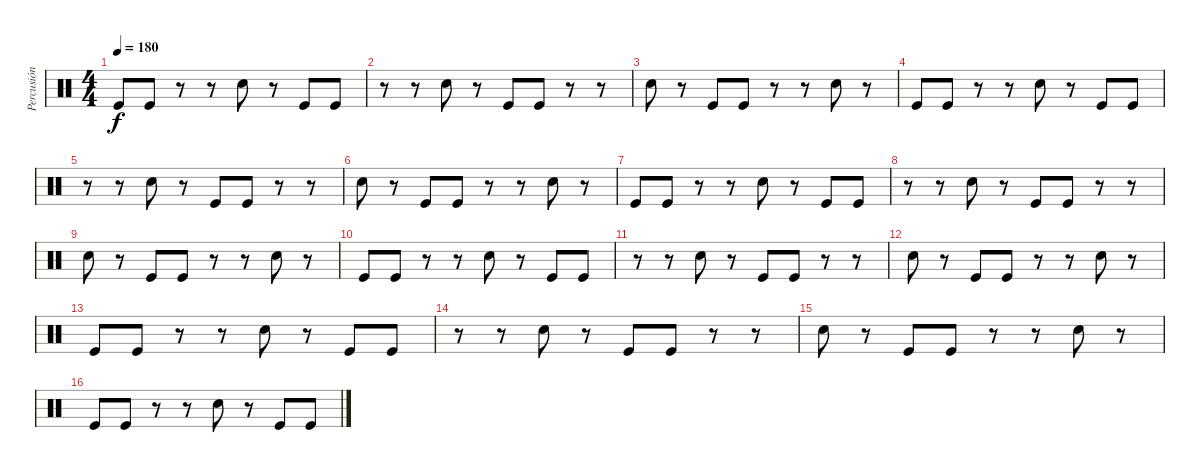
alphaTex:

\track ("Percusión" "Percusión") {instrument percussion}
\staff {score}
\articulation defaults
\ts (4 4)
\tempo 180
\clef neutral
\ks c "Kick (hit)".8{dy f} "Kick (hit)".8
r.8 r.8 "Snare (hit) 2".8 r.8 "Kick (hit)".8 "Kick (hit)".8 |
r.8 r.8 "Snare (hit) 2".8 r.8 "Kick (hit)".8 "Kick (hit)".8 r.8 r.8 |
"Snare (hit) 2".8 r.8 "Kick (hit)".8 "Kick (hit)".8 r.8 r.8 "Snare (hit) 2".8 r.8 |
"Kick (hit)".8 "Kick (hit)".8 r.8 r.8 "Snare (hit) 2".8 r.8 "Kick (hit)".8 "Kick (hit)".8 |
r.8 r.8 "Snare (hit) 2".8 r.8 "Kick (hit)".8 "Kick (hit)".8 r.8 r.8 |
"Snare (hit) 2".8 r.8 "Kick (hit)".8 "Kick (hit)".8 r.8 r.8 "Snare (hit) 2".8 r.8 |
"Kick (hit)".8 "Kick (hit)".8 r.8 r.8 "Snare (hit) 2".8 r.8 "Kick (hit)".8 "Kick (hit)".8 |
r.8 r.8 "Snare (hit) 2".8 r.8 "Kick (hit)".8 "Kick (hit)".8 r.8 r.8 |
"Snare (hit) 2".8 r.8 "Kick (hit)".8 "Kick (hit)".8 r.8 r.8 "Snare (hit) 2".8 r.8 |
"Kick (hit)".8 "Kick (hit)".8 r.8 r.8 "Snare (hit) 2".8 r.8 "Kick (hit)".8 "Kick (hit)".8 |
r.8 r.8 "Snare (hit) 2".8 r.8 "Kick (hit)".8 "Kick (hit)".8 r.8 r.8 |
"Snare (hit) 2".8 r.8 "Kick (hit)".8 "Kick (hit)".8 r.8 r.8 "Snare (hit) 2".8 r.8 |
"Kick (hit)".8 "Kick (hit)".8 r.8 r.8 "Snare (hit) 2".8 r.8 "Kick (hit)".8 "Kick (hit)".8 |
r.8 r.8 "Snare (hit) 2".8 r.8 "Kick (hit)".8 "Kick (hit)".8 r.8 r.8 |
"Snare (hit) 2".8 r.8 "Kick (hit)".8 "Kick (hit)".8 r.8 r.8 "Snare (hit) 2".8 r.8 |
"Kick (hit)".8 "Kick (hit)".8 r.8 r.8 "Snare (hit) 2".8 r.8 "Kick (hit)".8 "Kick (hit)".8
